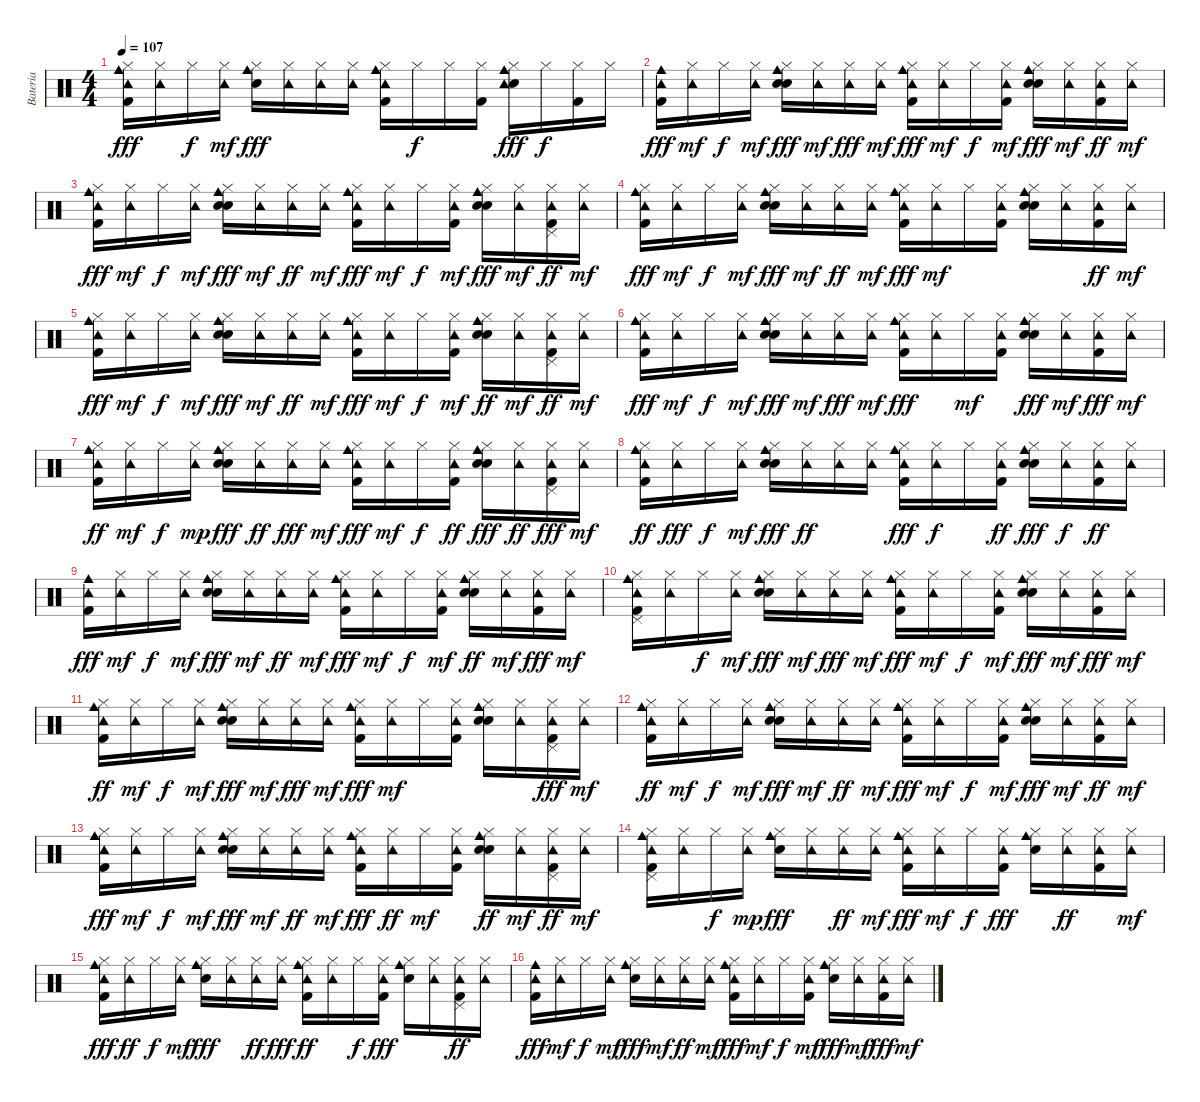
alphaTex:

\track ("Bateria" "Bateria") {instrument percussion}
\staff {score}
\articulation defaults
\ts (4 4)
\tempo 107
\clef neutral
\ks c
("Cowbell medium (hit)" "Kick (hit) 2" "Tambourine (hit)" "Hi-Hat (closed)").16{dy fff} ("Tambourine (hit)" "Hi-Hat (closed)").16 "Hi-Hat (closed)".16{dy f} ("Tambourine (hit)" "Hi-Hat (closed)").16{dy mf} ("Cowbell medium (hit)" "Snare (hit) 2" "Hi-Hat (closed)").16{dy fff} ("Tambourine (hit)" "Hi-Hat (closed)").16 ("Tambourine (hit)" "Hi-Hat (closed)").16 ("Tambourine (hit)" "Hi-Hat (closed)").16 ("Cowbell medium (hit)" "Kick (hit) 2" "Tambourine (hit)" "Hi-Hat (closed)").16 "Hi-Hat (closed)".16{dy f} "Hi-Hat (closed)".16 ("Kick (hit) 2" "Hi-Hat (closed)").16 ("Cowbell medium (hit)" "Snare (hit) 2" "Tambourine (hit)" "Hi-Hat (closed)").16{dy fff} "Hi-Hat (closed)".16{dy f} ("Kick (hit) 2" "Hi-Hat (closed)").16 "Hi-Hat (closed)".16 |
("Cowbell medium (hit)" "Kick (hit) 2" "Tambourine (hit)").16{dy fff} ("Tambourine (hit)" "Hi-Hat (closed)").16{dy mf} "Hi-Hat (closed)".16{dy f} ("Tambourine (hit)" "Hi-Hat (closed)").16{dy mf} ("Hand Clap (hit)" "Cowbell medium (hit)" "Snare (hit) 2" "Hi-Hat (closed)").16{dy fff} ("Tambourine (hit)" "Hi-Hat (closed)").16{dy mf} ("Tambourine (hit)" "Hi-Hat (closed)").16{dy fff} ("Tambourine (hit)" "Hi-Hat (closed)").16{dy mf} ("Cowbell medium (hit)" "Kick (hit) 2" "Tambourine (hit)" "Hi-Hat (closed)").16{dy fff} ("Tambourine (hit)" "Hi-Hat (closed)").16{dy mf} "Hi-Hat (closed)".16{dy f} ("Kick (hit) 2" "Tambourine (hit)" "Hi-Hat (closed)").16{dy mf} ("Hand Clap (hit)" "Cowbell medium (hit)" "Snare (hit) 2" "Hi-Hat (closed)").16{dy fff} ("Tambourine (hit)" "Hi-Hat (closed)").16{dy mf} ("Kick (hit) 2" "Tambourine (hit)" "Hi-Hat (closed)").16{dy ff} ("Tambourine (hit)" "Hi-Hat (closed)").16{dy mf} |
("Cowbell medium (hit)" "Kick (hit) 2" "Tambourine (hit)" "Hi-Hat (closed)").16{dy fff} ("Tambourine (hit)" "Hi-Hat (closed)").16{dy mf} "Hi-Hat (closed)".16{dy f} ("Tambourine (hit)" "Hi-Hat (closed)").16{dy mf} ("Hand Clap (hit)" "Cowbell medium (hit)" "Snare (hit) 2" "Hi-Hat (closed)").16{dy fff} ("Tambourine (hit)" "Hi-Hat (closed)").16{dy mf} ("Tambourine (hit)" "Hi-Hat (closed)").16{dy ff} ("Tambourine (hit)" "Hi-Hat (closed)").16{dy mf} ("Cowbell medium (hit)" "Kick (hit) 2" "Tambourine (hit)" "Hi-Hat (closed)").16{dy fff} ("Tambourine (hit)" "Hi-Hat (closed)").16{dy mf} "Hi-Hat (closed)".16{dy f} ("Kick (hit) 2" "Tambourine (hit)" "Hi-Hat (closed)").16{dy mf} ("Hand Clap (hit)" "Cowbell medium (hit)" "Snare (hit) 2" "Hi-Hat (closed)").16{dy fff} ("Tambourine (hit)" "Hi-Hat (closed)").16{dy mf} ("Kick (hit) 2" "Tambourine (hit)" "Pedal Hi-Hat (hit)" "Hi-Hat (closed)").16{dy ff} ("Tambourine (hit)" "Hi-Hat (closed)").16{dy mf} |
("Cowbell medium (hit)" "Kick (hit) 2" "Tambourine (hit)" "Hi-Hat (closed)").16{dy fff} ("Tambourine (hit)" "Hi-Hat (closed)").16{dy mf} "Hi-Hat (closed)".16{dy f} ("Tambourine (hit)" "Hi-Hat (closed)").16{dy mf} ("Hand Clap (hit)" "Cowbell medium (hit)" "Snare (hit) 2" "Hi-Hat (closed)").16{dy fff} ("Tambourine (hit)" "Hi-Hat (closed)").16{dy mf} ("Tambourine (hit)" "Hi-Hat (closed)").16{dy ff} ("Tambourine (hit)" "Hi-Hat (closed)").16{dy mf} ("Cowbell medium (hit)" "Kick (hit) 2" "Tambourine (hit)" "Hi-Hat (closed)").16{dy fff} ("Tambourine (hit)" "Hi-Hat (closed)").16{dy mf} "Hi-Hat (closed)".16 ("Kick (hit) 2" "Tambourine (hit)" "Hi-Hat (closed)").16 ("Hand Clap (hit)" "Cowbell medium (hit)" "Snare (hit) 2" "Hi-Hat (closed)").16 ("Tambourine (hit)" "Hi-Hat (closed)").16 ("Kick (hit) 2" "Tambourine (hit)" "Hi-Hat (closed)").16{dy ff} ("Tambourine (hit)" "Hi-Hat (closed)").16{dy mf} |
("Cowbell medium (hit)" "Kick (hit) 2" "Tambourine (hit)" "Hi-Hat (closed)").16{dy fff} ("Tambourine (hit)" "Hi-Hat (closed)").16{dy mf} "Hi-Hat (closed)".16{dy f} ("Tambourine (hit)" "Hi-Hat (closed)").16{dy mf} ("Hand Clap (hit)" "Cowbell medium (hit)" "Snare (hit) 2" "Hi-Hat (closed)").16{dy fff} ("Tambourine (hit)" "Hi-Hat (closed)").16{dy mf} ("Tambourine (hit)" "Hi-Hat (closed)").16{dy ff} ("Tambourine (hit)" "Hi-Hat (closed)").16{dy mf} ("Cowbell medium (hit)" "Kick (hit) 2" "Tambourine (hit)" "Hi-Hat (closed)").16{dy fff} ("Tambourine (hit)" "Hi-Hat (closed)").16{dy mf} "Hi-Hat (closed)".16{dy f} ("Kick (hit) 2" "Tambourine (hit)" "Hi-Hat (closed)").16{dy mf} ("Hand Clap (hit)" "Cowbell medium (hit)" "Snare (hit) 2" "Hi-Hat (closed)").16{dy ff} ("Tambourine (hit)" "Hi-Hat (closed)").16{dy mf} ("Kick (hit) 2" "Tambourine (hit)" "Pedal Hi-Hat (hit)" "Hi-Hat (closed)").16{dy ff} ("Tambourine (hit)" "Hi-Hat (closed)").16{dy mf} |
("Cowbell medium (hit)" "Kick (hit) 2" "Tambourine (hit)" "Hi-Hat (closed)").16{dy fff} ("Tambourine (hit)" "Hi-Hat (closed)").16{dy mf} "Hi-Hat (closed)".16{dy f} ("Tambourine (hit)" "Hi-Hat (closed)").16{dy mf} ("Hand Clap (hit)" "Cowbell medium (hit)" "Snare (hit) 2" "Hi-Hat (closed)").16{dy fff} ("Tambourine (hit)" "Hi-Hat (closed)").16{dy mf} ("Tambourine (hit)" "Hi-Hat (closed)").16{dy fff} ("Tambourine (hit)" "Hi-Hat (closed)").16{dy mf} ("Cowbell medium (hit)" "Kick (hit) 2" "Tambourine (hit)" "Hi-Hat (closed)").16{dy fff} ("Tambourine (hit)" "Hi-Hat (closed)").16 "Hi-Hat (closed)".16{dy mf} ("Kick (hit) 2" "Tambourine (hit)" "Hi-Hat (closed)").16 ("Hand Clap (hit)" "Cowbell medium (hit)" "Snare (hit) 2" "Hi-Hat (closed)").16{dy fff} ("Tambourine (hit)" "Hi-Hat (closed)").16{dy mf} ("Kick (hit) 2" "Tambourine (hit)" "Hi-Hat (closed)").16{dy fff} ("Tambourine (hit)" "Hi-Hat (closed)").16{dy mf} |
("Cowbell medium (hit)" "Kick (hit) 2" "Tambourine (hit)" "Hi-Hat (closed)").16{dy ff} ("Tambourine (hit)" "Hi-Hat (closed)").16{dy mf} "Hi-Hat (closed)".16{dy f} ("Tambourine (hit)" "Hi-Hat (closed)").16{dy mp} ("Hand Clap (hit)" "Cowbell medium (hit)" "Snare (hit) 2" "Hi-Hat (closed)").16{dy fff} ("Tambourine (hit)" "Hi-Hat (closed)").16{dy ff} ("Tambourine (hit)" "Hi-Hat (closed)").16{dy fff} ("Tambourine (hit)" "Hi-Hat (closed)").16{dy mf} ("Cowbell medium (hit)" "Kick (hit) 2" "Tambourine (hit)" "Hi-Hat (closed)").16{dy fff} ("Tambourine (hit)" "Hi-Hat (closed)").16{dy mf} "Hi-Hat (closed)".16{dy f} ("Kick (hit) 2" "Tambourine (hit)" "Hi-Hat (closed)").16{dy ff} ("Hand Clap (hit)" "Cowbell medium (hit)" "Snare (hit) 2" "Hi-Hat (closed)").16{dy fff} ("Tambourine (hit)" "Hi-Hat (closed)").16{dy ff} ("Kick (hit) 2" "Tambourine (hit)" "Pedal Hi-Hat (hit)" "Hi-Hat (closed)").16{dy fff} ("Tambourine (hit)" "Hi-Hat (closed)").16{dy mf} |
("Cowbell medium (hit)" "Kick (hit) 2" "Tambourine (hit)" "Hi-Hat (closed)").16{dy ff} ("Tambourine (hit)" "Hi-Hat (closed)").16{dy fff} "Hi-Hat (closed)".16{dy f} ("Tambourine (hit)" "Hi-Hat (closed)").16{dy mf} ("Hand Clap (hit)" "Cowbell medium (hit)" "Snare (hit) 2" "Hi-Hat (closed)").16{dy fff} ("Tambourine (hit)" "Hi-Hat (closed)").16{dy ff} ("Tambourine (hit)" "Hi-Hat (closed)").16 ("Tambourine (hit)" "Hi-Hat (closed)").16 ("Cowbell medium (hit)" "Kick (hit) 2" "Tambourine (hit)" "Hi-Hat (closed)").16{dy fff} ("Tambourine (hit)" "Hi-Hat (closed)").16{dy f} "Hi-Hat (closed)".16 ("Kick (hit) 2" "Tambourine (hit)" "Hi-Hat (closed)").16{dy ff} ("Hand Clap (hit)" "Cowbell medium (hit)" "Snare (hit) 2" "Hi-Hat (closed)").16{dy fff} ("Tambourine (hit)" "Hi-Hat (closed)").16{dy f} ("Kick (hit) 2" "Tambourine (hit)" "Hi-Hat (closed)").16{dy ff} ("Tambourine (hit)" "Hi-Hat (closed)").16 |
("Cowbell medium (hit)" "Kick (hit) 2" "Tambourine (hit)").16{dy fff} ("Tambourine (hit)" "Hi-Hat (closed)").16{dy mf} "Hi-Hat (closed)".16{dy f} ("Tambourine (hit)" "Hi-Hat (closed)").16{dy mf} ("Hand Clap (hit)" "Cowbell medium (hit)" "Snare (hit) 2" "Hi-Hat (closed)").16{dy fff} ("Tambourine (hit)" "Hi-Hat (closed)").16{dy mf} ("Tambourine (hit)" "Hi-Hat (closed)").16{dy ff} ("Tambourine (hit)" "Hi-Hat (closed)").16{dy mf} ("Cowbell medium (hit)" "Kick (hit) 2" "Tambourine (hit)" "Hi-Hat (closed)").16{dy fff} ("Tambourine (hit)" "Hi-Hat (closed)").16{dy mf} "Hi-Hat (closed)".16{dy f} ("Kick (hit) 2" "Tambourine (hit)" "Hi-Hat (closed)").16{dy mf} ("Hand Clap (hit)" "Cowbell medium (hit)" "Snare (hit) 2" "Hi-Hat (closed)").16{dy ff} ("Tambourine (hit)" "Hi-Hat (closed)").16{dy mf} ("Kick (hit) 2" "Tambourine (hit)" "Hi-Hat (closed)").16{dy fff} ("Tambourine (hit)" "Hi-Hat (closed)").16{dy mf} |
("Cowbell medium (hit)" "Kick (hit) 2" "Tambourine (hit)" "Pedal Hi-Hat (hit)" "Hi-Hat (closed)").16 ("Tambourine (hit)" "Hi-Hat (closed)").16 "Hi-Hat (closed)".16{dy f} ("Tambourine (hit)" "Hi-Hat (closed)").16{dy mf} ("Hand Clap (hit)" "Cowbell medium (hit)" "Snare (hit) 2" "Hi-Hat (closed)").16{dy fff} ("Tambourine (hit)" "Hi-Hat (closed)").16{dy mf} ("Tambourine (hit)" "Hi-Hat (closed)").16{dy fff} ("Tambourine (hit)" "Hi-Hat (closed)").16{dy mf} ("Cowbell medium (hit)" "Kick (hit) 2" "Tambourine (hit)" "Hi-Hat (closed)").16{dy fff} ("Tambourine (hit)" "Hi-Hat (closed)").16{dy mf} "Hi-Hat (closed)".16{dy f} ("Kick (hit) 2" "Tambourine (hit)" "Hi-Hat (closed)").16{dy mf} ("Hand Clap (hit)" "Cowbell medium (hit)" "Snare (hit) 2" "Hi-Hat (closed)").16{dy fff} ("Tambourine (hit)" "Hi-Hat (closed)").16{dy mf} ("Kick (hit) 2" "Tambourine (hit)" "Hi-Hat (closed)").16{dy fff} ("Tambourine (hit)" "Hi-Hat (closed)").16{dy mf} |
("Cowbell medium (hit)" "Kick (hit) 2" "Tambourine (hit)" "Hi-Hat (closed)").16{dy ff} ("Tambourine (hit)" "Hi-Hat (closed)").16{dy mf} "Hi-Hat (closed)".16{dy f} ("Tambourine (hit)" "Hi-Hat (closed)").16{dy mf} ("Hand Clap (hit)" "Cowbell medium (hit)" "Snare (hit) 2" "Hi-Hat (closed)").16{dy fff} ("Tambourine (hit)" "Hi-Hat (closed)").16{dy mf} ("Tambourine (hit)" "Hi-Hat (closed)").16{dy fff} ("Tambourine (hit)" "Hi-Hat (closed)").16{dy mf} ("Cowbell medium (hit)" "Kick (hit) 2" "Tambourine (hit)" "Hi-Hat (closed)").16{dy fff} ("Tambourine (hit)" "Hi-Hat (closed)").16{dy mf} "Hi-Hat (closed)".16 ("Kick (hit) 2" "Tambourine (hit)" "Hi-Hat (closed)").16 ("Hand Clap (hit)" "Cowbell medium (hit)" "Snare (hit) 2" "Hi-Hat (closed)").16 ("Tambourine (hit)" "Hi-Hat (closed)").16 ("Kick (hit) 2" "Tambourine (hit)" "Pedal Hi-Hat (hit)" "Hi-Hat (closed)").16{dy fff} ("Tambourine (hit)" "Hi-Hat (closed)").16{dy mf} |
("Cowbell medium (hit)" "Kick (hit) 2" "Tambourine (hit)" "Hi-Hat (closed)").16{dy ff} ("Tambourine (hit)" "Hi-Hat (closed)").16{dy mf} "Hi-Hat (closed)".16{dy f} ("Tambourine (hit)" "Hi-Hat (closed)").16{dy mf} ("Hand Clap (hit)" "Cowbell medium (hit)" "Snare (hit) 2" "Hi-Hat (closed)").16{dy fff} ("Tambourine (hit)" "Hi-Hat (closed)").16{dy mf} ("Tambourine (hit)" "Hi-Hat (closed)").16{dy ff} ("Tambourine (hit)" "Hi-Hat (closed)").16{dy mf} ("Cowbell medium (hit)" "Kick (hit) 2" "Tambourine (hit)" "Hi-Hat (closed)").16{dy fff} ("Tambourine (hit)" "Hi-Hat (closed)").16{dy mf} "Hi-Hat (closed)".16{dy f} ("Kick (hit) 2" "Tambourine (hit)" "Hi-Hat (closed)").16{dy mf} ("Hand Clap (hit)" "Cowbell medium (hit)" "Snare (hit) 2" "Hi-Hat (closed)").16{dy fff} ("Tambourine (hit)" "Hi-Hat (closed)").16{dy mf} ("Kick (hit) 2" "Tambourine (hit)" "Hi-Hat (closed)").16{dy ff} ("Tambourine (hit)" "Hi-Hat (closed)").16{dy mf} |
("Cowbell medium (hit)" "Kick (hit) 2" "Tambourine (hit)" "Hi-Hat (closed)").16{dy fff} ("Tambourine (hit)" "Hi-Hat (closed)").16{dy mf} "Hi-Hat (closed)".16{dy f} ("Tambourine (hit)" "Hi-Hat (closed)").16{dy mf} ("Hand Clap (hit)" "Cowbell medium (hit)" "Snare (hit) 2" "Hi-Hat (closed)").16{dy fff} ("Tambourine (hit)" "Hi-Hat (closed)").16{dy mf} ("Tambourine (hit)" "Hi-Hat (closed)").16{dy ff} ("Tambourine (hit)" "Hi-Hat (closed)").16{dy mf} ("Cowbell medium (hit)" "Kick (hit) 2" "Tambourine (hit)" "Hi-Hat (closed)").16{dy fff} ("Tambourine (hit)" "Hi-Hat (closed)").16{dy ff} "Hi-Hat (closed)".16{dy mf} ("Kick (hit) 2" "Tambourine (hit)" "Hi-Hat (closed)").16 ("Hand Clap (hit)" "Cowbell medium (hit)" "Snare (hit) 2" "Hi-Hat (closed)").16{dy ff} ("Tambourine (hit)" "Hi-Hat (closed)").16{dy mf} ("Kick (hit) 2" "Tambourine (hit)" "Pedal Hi-Hat (hit)" "Hi-Hat (closed)").16{dy ff} ("Tambourine (hit)" "Hi-Hat (closed)").16{dy mf} |
("Cowbell medium (hit)" "Kick (hit) 2" "Tambourine (hit)" "Pedal Hi-Hat (hit)" "Hi-Hat (closed)").16 ("Tambourine (hit)" "Hi-Hat (closed)").16 "Hi-Hat (closed)".16{dy f} ("Tambourine (hit)" "Hi-Hat (closed)").16{dy mp} ("Cowbell medium (hit)" "Snare (hit) 2" "Hi-Hat (closed)").16{dy fff} ("Tambourine (hit)" "Hi-Hat (closed)").16 ("Tambourine (hit)" "Hi-Hat (closed)").16{dy ff} ("Tambourine (hit)" "Hi-Hat (closed)").16{dy mf} ("Cowbell medium (hit)" "Kick (hit) 2" "Tambourine (hit)" "Hi-Hat (closed)").16{dy fff} ("Tambourine (hit)" "Hi-Hat (closed)").16{dy mf} "Hi-Hat (closed)".16{dy f} ("Kick (hit) 2" "Tambourine (hit)" "Hi-Hat (closed)").16{dy fff} ("Cowbell medium (hit)" "Snare (hit) 2" "Hi-Hat (closed)").16 ("Tambourine (hit)" "Hi-Hat (closed)").16{dy ff} ("Kick (hit) 2" "Tambourine (hit)" "Hi-Hat (closed)").16 ("Tambourine (hit)" "Hi-Hat (closed)").16{dy mf} |
("Cowbell medium (hit)" "Kick (hit) 2" "Tambourine (hit)" "Hi-Hat (closed)").16{dy fff} ("Tambourine (hit)" "Hi-Hat (closed)").16{dy ff} "Hi-Hat (closed)".16{dy f} ("Tambourine (hit)" "Hi-Hat (closed)").16{dy mf} ("Cowbell medium (hit)" "Snare (hit) 2" "Hi-Hat (closed)").16{dy fff} ("Tambourine (hit)" "Hi-Hat (closed)").16 ("Tambourine (hit)" "Hi-Hat (closed)").16{dy ff} ("Tambourine (hit)" "Hi-Hat (closed)").16{dy fff} ("Cowbell medium (hit)" "Kick (hit) 2" "Tambourine (hit)" "Hi-Hat (closed)").16{dy ff} ("Tambourine (hit)" "Hi-Hat (closed)").16 "Hi-Hat (closed)".16{dy f} ("Kick (hit) 2" "Tambourine (hit)" "Hi-Hat (closed)").16{dy fff} ("Cowbell medium (hit)" "Snare (hit) 2" "Hi-Hat (closed)").16 ("Tambourine (hit)" "Hi-Hat (closed)").16 ("Kick (hit) 2" "Tambourine (hit)" "Pedal Hi-Hat (hit)" "Hi-Hat (closed)").16{dy ff} ("Tambourine (hit)" "Hi-Hat (closed)").16 |
("Cowbell medium (hit)" "Kick (hit) 2" "Tambourine (hit)").16{dy fff} ("Tambourine (hit)" "Hi-Hat (closed)").16{dy mf} "Hi-Hat (closed)".16{dy f} ("Tambourine (hit)" "Hi-Hat (closed)").16{dy mf} ("Cowbell medium (hit)" "Snare (hit) 2" "Hi-Hat (closed)").16{dy fff} ("Tambourine (hit)" "Hi-Hat (closed)").16{dy mf} ("Tambourine (hit)" "Hi-Hat (closed)").16{dy ff} ("Tambourine (hit)" "Hi-Hat (closed)").16{dy mf} ("Cowbell medium (hit)" "Kick (hit) 2" "Tambourine (hit)" "Hi-Hat (closed)").16{dy fff} ("Tambourine (hit)" "Hi-Hat (closed)").16{dy mf} "Hi-Hat (closed)".16{dy f} ("Kick (hit) 2" "Tambourine (hit)" "Hi-Hat (closed)").16{dy mf} ("Cowbell medium (hit)" "Snare (hit) 2" "Hi-Hat (closed)").16{dy fff} ("Tambourine (hit)" "Hi-Hat (closed)").16{dy mf} ("Kick (hit) 2" "Tambourine (hit)" "Hi-Hat (closed)").16{dy fff} ("Tambourine (hit)" "Hi-Hat (closed)").16{dy mf}
